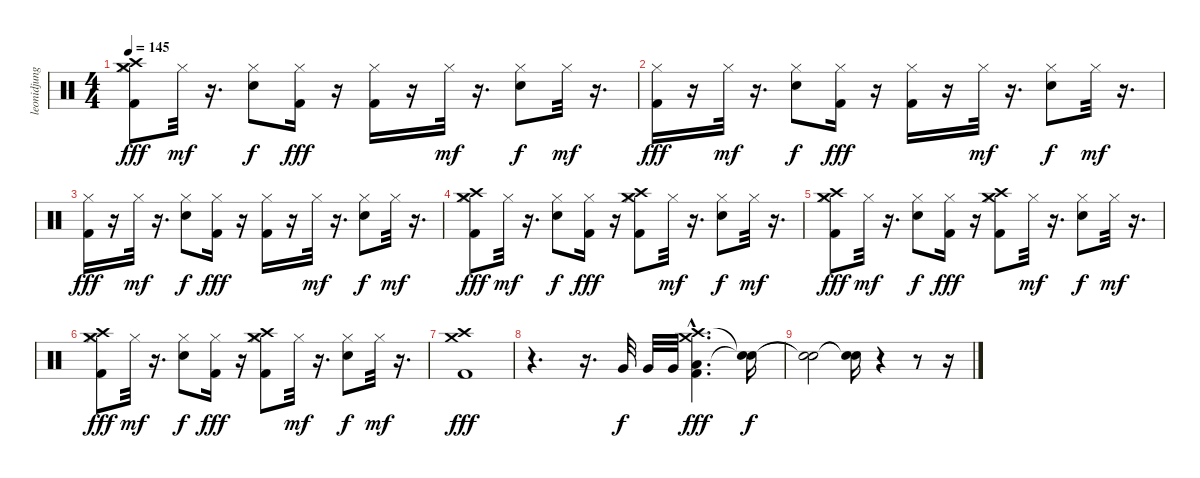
\track ("leonidjung@freenet.de" "leonidjung") {instrument percussion}
\staff {score}
\articulation defaults
\ts (4 4)
\tempo 145
\clef neutral
\ks c
("Hi-Hat (closed)" "Crash high (hit)" "Crash medium (hit)" "Kick (hit) 2").8{dy fff} "Hi-Hat (closed)".32{dy mf} r.16{d} ("Snare (hit) 2" "Hi-Hat (closed)").8{dy f} ("Hi-Hat (closed)" "Kick (hit) 2").16{dy fff} r.16 ("Hi-Hat (closed)" "Kick (hit) 2").16 r.16 "Hi-Hat (closed)".32{dy mf} r.16{d} ("Snare (hit) 2" "Hi-Hat (closed)").8{dy f} "Hi-Hat (closed)".32{dy mf} r.16{d} |
("Hi-Hat (closed)" "Kick (hit) 2").16{dy fff} r.16 "Hi-Hat (closed)".32{dy mf} r.16{d} ("Snare (hit) 2" "Hi-Hat (closed)").8{dy f} ("Hi-Hat (closed)" "Kick (hit) 2").16{dy fff} r.16 ("Hi-Hat (closed)" "Kick (hit) 2").16 r.16 "Hi-Hat (closed)".32{dy mf} r.16{d} ("Snare (hit) 2" "Hi-Hat (closed)").8{dy f} "Hi-Hat (closed)".32{dy mf} r.16{d} |
("Hi-Hat (closed)" "Kick (hit) 2").16{dy fff} r.16 "Hi-Hat (closed)".32{dy mf} r.16{d} ("Snare (hit) 2" "Hi-Hat (closed)").8{dy f} ("Hi-Hat (closed)" "Kick (hit) 2").16{dy fff} r.16 ("Hi-Hat (closed)" "Kick (hit) 2").16 r.16 "Hi-Hat (closed)".32{dy mf} r.16{d} ("Snare (hit) 2" "Hi-Hat (closed)").8{dy f} "Hi-Hat (closed)".32{dy mf} r.16{d} |
("Hi-Hat (closed)" "Crash high (hit)" "Crash medium (hit)" "Kick (hit) 2").8{dy fff} "Hi-Hat (closed)".32{dy mf} r.16{d} ("Snare (hit) 2" "Hi-Hat (closed)").8{dy f} ("Hi-Hat (closed)" "Kick (hit) 2").16{dy fff} r.16 ("Hi-Hat (closed)" "Crash high (hit)" "Crash medium (hit)" "Kick (hit) 2").8 "Hi-Hat (closed)".32{dy mf} r.16{d} ("Snare (hit) 2" "Hi-Hat (closed)").8{dy f} "Hi-Hat (closed)".32{dy mf} r.16{d} |
("Hi-Hat (closed)" "Crash high (hit)" "Crash medium (hit)" "Kick (hit) 2").8{dy fff} "Hi-Hat (closed)".32{dy mf} r.16{d} ("Snare (hit) 2" "Hi-Hat (closed)").8{dy f} ("Hi-Hat (closed)" "Kick (hit) 2").16{dy fff} r.16 ("Hi-Hat (closed)" "Crash high (hit)" "Crash medium (hit)" "Kick (hit) 2").8 "Hi-Hat (closed)".32{dy mf} r.16{d} ("Snare (hit) 2" "Hi-Hat (closed)").8{dy f} "Hi-Hat (closed)".32{dy mf} r.16{d} |
("Hi-Hat (closed)" "Crash high (hit)" "Crash medium (hit)" "Kick (hit) 2").8{dy fff} "Hi-Hat (closed)".32{dy mf} r.16{d} ("Snare (hit) 2" "Hi-Hat (closed)").8{dy f} ("Hi-Hat (closed)" "Kick (hit) 2").16{dy fff} r.16 ("Hi-Hat (closed)" "Crash high (hit)" "Crash medium (hit)" "Kick (hit) 2").8 "Hi-Hat (closed)".32{dy mf} r.16{d} ("Snare (hit) 2" "Hi-Hat (closed)").8{dy f} "Hi-Hat (closed)".32{dy mf} r.16{d} |
("Crash high (hit)" "Crash medium (hit)" "Kick (hit) 2").1{dy fff} |
r.4{d} r.16{d} "Very Low Tom (hit)".32{dy f} "Very Low Tom (hit)".32 "Very Low Tom (hit)".32 ("Low Floor Tom (hit)" "Crash high (hit)"{hac} "Crash medium (hit)"{hac} "Kick (hit) 2").4{d dy fff} ("Snare (hit)"{t} "Snare (hit)"{t}).16{dy f} |
("Snare (hit)"{t} "Snare (hit)"{t}).2 ("Snare (hit)"{t} "Snare (hit)"{t}).16 r.4 r.8 r.16
